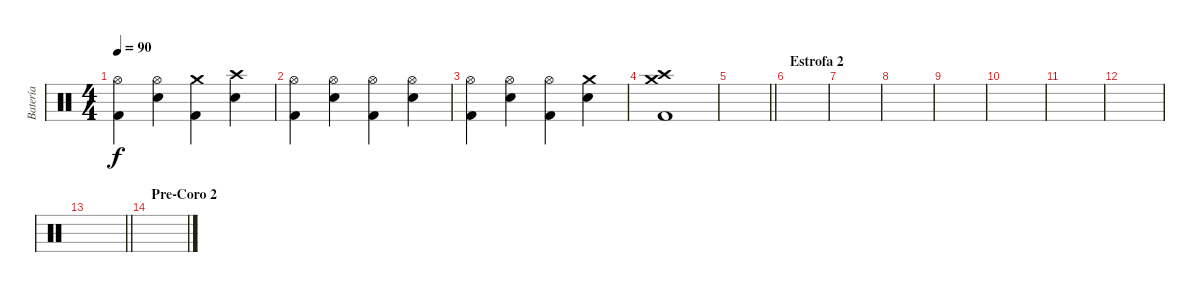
\track ("Batería" "Batería") {instrument percussion}
\staff {score}
\articulation defaults
\ts (4 4)
\tempo 90
\clef neutral
\ks c
("Hi-Hat (open)" "Kick (hit) 2").4{dy f} ("Hi-Hat (open)" "Snare (hit) 2").4 ("Crash medium (hit)" "Kick (hit) 2").4 ("Crash high (hit)" "Snare (hit) 2").4 |
("Hi-Hat (open)" "Kick (hit) 2").4 ("Hi-Hat (open)" "Snare (hit) 2").4 ("Hi-Hat (open)" "Kick (hit) 2").4 ("Hi-Hat (open)" "Snare (hit) 2").4 |
("Hi-Hat (open)" "Kick (hit) 2").4 ("Hi-Hat (open)" "Snare (hit) 2").4 ("Hi-Hat (open)" "Kick (hit) 2").4 ("Crash medium (hit)" "Snare (hit) 2").4 |
("Crash medium (hit)" "Crash high (hit)" "Kick (hit) 2").1 |
\barLineRight lightlight
|
\section ("" "Estrofa 2")
|
|
|
|
|
|
|
\barLineRight lightlight
|
\section ("" "Pre-Coro 2")
